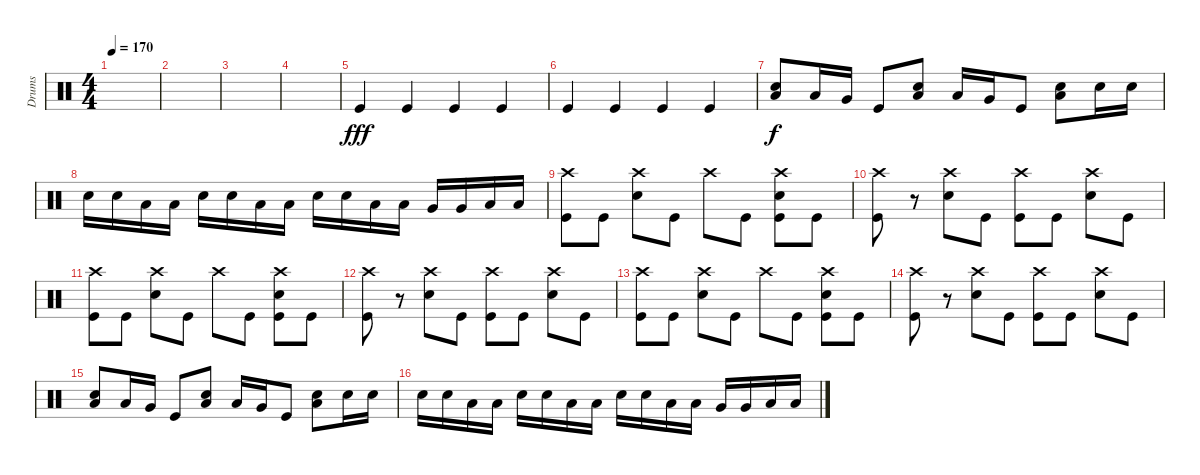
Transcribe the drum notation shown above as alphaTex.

\track ("Drums" "Drums") {instrument percussion}
\staff {score}
\articulation defaults
\ts (4 4)
\tempo 170
\clef neutral
\ks c
|
|
|
|
"Kick (hit)".4{dy fff} "Kick (hit)".4 "Kick (hit)".4 "Kick (hit)".4 |
"Kick (hit)".4 "Kick (hit)".4 "Kick (hit)".4 "Kick (hit)".4 |
("Electric Snare (hit)" "Low Floor Tom (hit)").8{dy f} "Low Tom (hit)".16 "Very Low Tom (hit)".16 "Kick (hit)".8 ("Electric Snare (hit)" "Low Floor Tom (hit)").8 "Low Tom (hit)".16 "Very Low Tom (hit)".16 "Kick (hit)".8 ("Electric Snare (hit)" "Low Floor Tom (hit)").8 "Electric Snare (hit)".16 "Electric Snare (hit)".16 |
"Electric Snare (hit)".16 "Electric Snare (hit)".16 "Low Tom (hit)".16 "Low Tom (hit)".16 "Electric Snare (hit)".16 "Electric Snare (hit)".16 "Low Tom (hit)".16 "Low Tom (hit)".16 "Electric Snare (hit)".16 "Electric Snare (hit)".16 "Low Tom (hit)".16 "Low Tom (hit)".16 "Very Low Tom (hit)".16 "Very Low Tom (hit)".16 "Low Floor Tom (hit)".16 "Low Floor Tom (hit)".16 |
("Crash high (hit)" "Kick (hit)").8 "Kick (hit)".8 ("Crash high (hit)" "Electric Snare (hit)").8 "Kick (hit)".8 "Crash high (hit)".8 "Kick (hit)".8 ("Crash high (hit)" "Electric Snare (hit)" "Kick (hit)").8 "Kick (hit)".8 |
("Crash high (hit)" "Kick (hit)").8 r.8 ("Crash high (hit)" "Electric Snare (hit)").8 "Kick (hit)".8 ("Crash high (hit)" "Kick (hit)").8 "Kick (hit)".8 ("Crash high (hit)" "Electric Snare (hit)").8 "Kick (hit)".8 |
("Crash high (hit)" "Kick (hit)").8 "Kick (hit)".8 ("Crash high (hit)" "Electric Snare (hit)").8 "Kick (hit)".8 "Crash high (hit)".8 "Kick (hit)".8 ("Crash high (hit)" "Electric Snare (hit)" "Kick (hit)").8 "Kick (hit)".8 |
("Crash high (hit)" "Kick (hit)").8 r.8 ("Crash high (hit)" "Electric Snare (hit)").8 "Kick (hit)".8 ("Crash high (hit)" "Kick (hit)").8 "Kick (hit)".8 ("Crash high (hit)" "Electric Snare (hit)").8 "Kick (hit)".8 |
("Crash high (hit)" "Kick (hit)").8 "Kick (hit)".8 ("Crash high (hit)" "Electric Snare (hit)").8 "Kick (hit)".8 "Crash high (hit)".8 "Kick (hit)".8 ("Crash high (hit)" "Electric Snare (hit)" "Kick (hit)").8 "Kick (hit)".8 |
("Crash high (hit)" "Kick (hit)").8 r.8 ("Crash high (hit)" "Electric Snare (hit)").8 "Kick (hit)".8 ("Crash high (hit)" "Kick (hit)").8 "Kick (hit)".8 ("Crash high (hit)" "Electric Snare (hit)").8 "Kick (hit)".8 |
("Electric Snare (hit)" "Low Floor Tom (hit)").8 "Low Tom (hit)".16 "Very Low Tom (hit)".16 "Kick (hit)".8 ("Electric Snare (hit)" "Low Floor Tom (hit)").8 "Low Tom (hit)".16 "Very Low Tom (hit)".16 "Kick (hit)".8 ("Electric Snare (hit)" "Low Floor Tom (hit)").8 "Electric Snare (hit)".16 "Electric Snare (hit)".16 |
"Electric Snare (hit)".16 "Electric Snare (hit)".16 "Low Tom (hit)".16 "Low Tom (hit)".16 "Electric Snare (hit)".16 "Electric Snare (hit)".16 "Low Tom (hit)".16 "Low Tom (hit)".16 "Electric Snare (hit)".16 "Electric Snare (hit)".16 "Low Tom (hit)".16 "Low Tom (hit)".16 "Very Low Tom (hit)".16 "Very Low Tom (hit)".16 "Low Floor Tom (hit)".16 "Low Floor Tom (hit)".16
